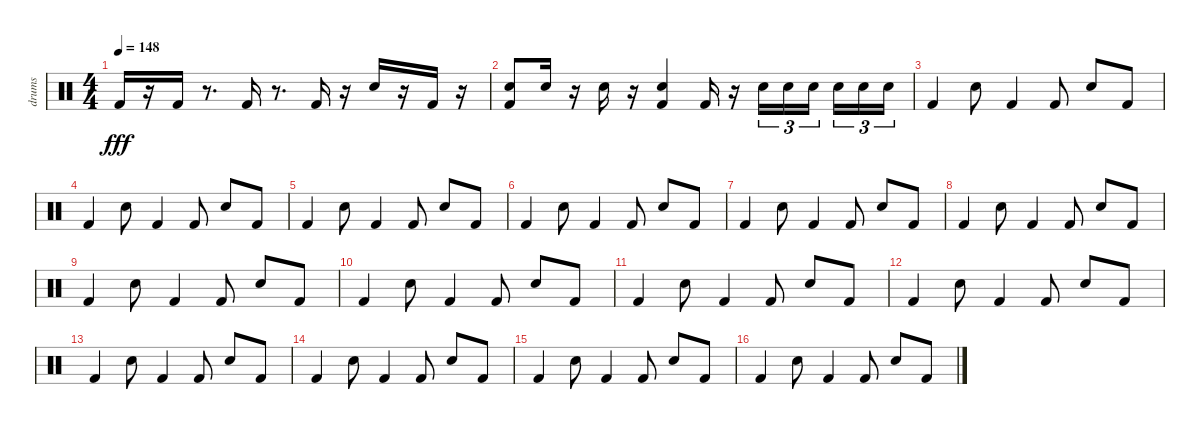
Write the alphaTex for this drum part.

\track ("drums" "drums") {instrument percussion}
\staff {score}
\articulation defaults
\ts (4 4)
\tempo 148
\clef neutral
\ks c "Kick (hit) 2".16{dy fff}
r.16 "Kick (hit) 2".16 r.8{d} "Kick (hit) 2".16 r.8{d} "Kick (hit) 2".16 r.16 "Electric Snare (hit)".16 r.16 "Kick (hit) 2".16 r.16 |
("Electric Snare (hit)" "Kick (hit) 2").8 "Electric Snare (hit)".16 r.16 "Electric Snare (hit)".16 r.16 ("Electric Snare (hit)" "Kick (hit) 2").4 "Kick (hit) 2".16 r.16 "Electric Snare (hit)".16{tu (3 2)} "Electric Snare (hit)".16{tu (3 2)} "Electric Snare (hit)".16{tu (3 2) beam splitsecondary} "Electric Snare (hit)".16{tu (3 2)} "Electric Snare (hit)".16{tu (3 2)} "Electric Snare (hit)".16{tu (3 2)} |
"Kick (hit) 2".4 "Electric Snare (hit)".8 "Kick (hit) 2".4 "Kick (hit) 2".8 "Electric Snare (hit)".8 "Kick (hit) 2".8 |
"Kick (hit) 2".4 "Electric Snare (hit)".8 "Kick (hit) 2".4 "Kick (hit) 2".8 "Electric Snare (hit)".8 "Kick (hit) 2".8 |
"Kick (hit) 2".4 "Electric Snare (hit)".8 "Kick (hit) 2".4 "Kick (hit) 2".8 "Electric Snare (hit)".8 "Kick (hit) 2".8 |
"Kick (hit) 2".4 "Electric Snare (hit)".8 "Kick (hit) 2".4 "Kick (hit) 2".8 "Electric Snare (hit)".8 "Kick (hit) 2".8 |
"Kick (hit) 2".4 "Electric Snare (hit)".8 "Kick (hit) 2".4 "Kick (hit) 2".8 "Electric Snare (hit)".8 "Kick (hit) 2".8 |
"Kick (hit) 2".4 "Electric Snare (hit)".8 "Kick (hit) 2".4 "Kick (hit) 2".8 "Electric Snare (hit)".8 "Kick (hit) 2".8 |
"Kick (hit) 2".4 "Electric Snare (hit)".8 "Kick (hit) 2".4 "Kick (hit) 2".8 "Electric Snare (hit)".8 "Kick (hit) 2".8 |
"Kick (hit) 2".4 "Electric Snare (hit)".8 "Kick (hit) 2".4 "Kick (hit) 2".8 "Electric Snare (hit)".8 "Kick (hit) 2".8 |
"Kick (hit) 2".4 "Electric Snare (hit)".8 "Kick (hit) 2".4 "Kick (hit) 2".8 "Electric Snare (hit)".8 "Kick (hit) 2".8 |
"Kick (hit) 2".4 "Electric Snare (hit)".8 "Kick (hit) 2".4 "Kick (hit) 2".8 "Electric Snare (hit)".8 "Kick (hit) 2".8 |
"Kick (hit) 2".4 "Electric Snare (hit)".8 "Kick (hit) 2".4 "Kick (hit) 2".8 "Electric Snare (hit)".8 "Kick (hit) 2".8 |
"Kick (hit) 2".4 "Electric Snare (hit)".8 "Kick (hit) 2".4 "Kick (hit) 2".8 "Electric Snare (hit)".8 "Kick (hit) 2".8 |
"Kick (hit) 2".4 "Electric Snare (hit)".8 "Kick (hit) 2".4 "Kick (hit) 2".8 "Electric Snare (hit)".8 "Kick (hit) 2".8 |
"Kick (hit) 2".4 "Electric Snare (hit)".8 "Kick (hit) 2".4 "Kick (hit) 2".8 "Electric Snare (hit)".8 "Kick (hit) 2".8
